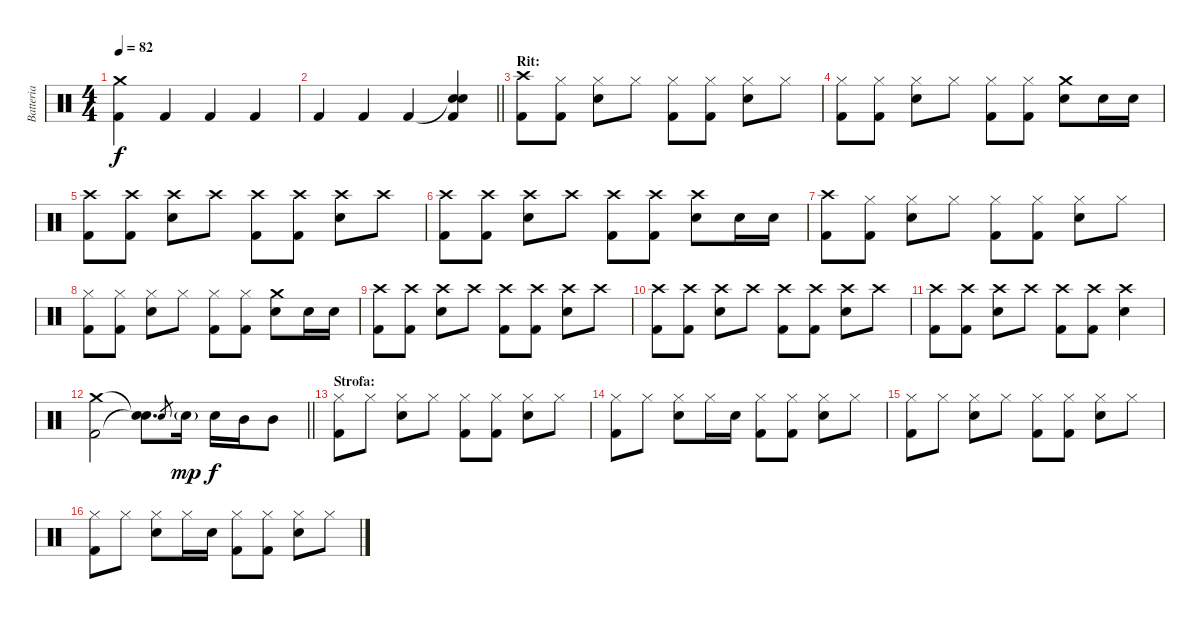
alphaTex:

\track ("Batteria" "Batteria") {instrument percussion}
\staff {score}
\articulation defaults
\ts (4 4)
\tempo 82
\clef neutral
\ks c
("Crash medium (hit)" "Kick (hit) 2").4{dy f} "Kick (hit) 2".4 "Kick (hit) 2".4 "Kick (hit) 2".4 |
\barLineRight lightlight "Kick (hit) 2".4 "Kick (hit) 2".4 "Kick (hit) 2".4
("Snare (hit)"{t} "Snare (hit) 2" "Kick (hit) 2").4 |
\section ("" "Rit:")
("Crash high (hit)" "Kick (hit) 2").8 ("Hi-Hat (closed)" "Kick (hit) 2").8 ("Hi-Hat (closed)" "Snare (hit) 2").8 "Hi-Hat (closed)".8 ("Hi-Hat (closed)" "Kick (hit) 2").8 ("Hi-Hat (closed)" "Kick (hit) 2").8 ("Hi-Hat (closed)" "Snare (hit) 2").8 "Hi-Hat (closed)".8 |
("Hi-Hat (closed)" "Kick (hit) 2").8 ("Hi-Hat (closed)" "Kick (hit) 2").8 ("Hi-Hat (closed)" "Snare (hit) 2").8 "Hi-Hat (closed)".8 ("Hi-Hat (closed)" "Kick (hit) 2").8 ("Hi-Hat (closed)" "Kick (hit) 2").8 ("Crash medium (hit)" "Snare (hit) 2").8 "Snare (hit) 2".16 "Snare (hit) 2".16 |
("Crash high (hit)" "Kick (hit) 2").8 ("Crash high (hit)" "Kick (hit) 2").8 ("Crash high (hit)" "Snare (hit) 2").8 "Crash high (hit)".8 ("Crash high (hit)" "Kick (hit) 2").8 ("Crash high (hit)" "Kick (hit) 2").8 ("Crash high (hit)" "Snare (hit) 2").8 "Crash high (hit)".8 |
("Crash high (hit)" "Kick (hit) 2").8 ("Crash high (hit)" "Kick (hit) 2").8 ("Crash high (hit)" "Snare (hit) 2").8 "Crash high (hit)".8 ("Crash high (hit)" "Kick (hit) 2").8 ("Crash high (hit)" "Kick (hit) 2").8 ("Crash high (hit)" "Snare (hit) 2").8 "Snare (hit) 2".16 "Snare (hit) 2".16 |
("Crash high (hit)" "Kick (hit) 2").8 ("Hi-Hat (closed)" "Kick (hit) 2").8 ("Hi-Hat (closed)" "Snare (hit) 2").8 "Hi-Hat (closed)".8 ("Hi-Hat (closed)" "Kick (hit) 2").8 ("Hi-Hat (closed)" "Kick (hit) 2").8 ("Hi-Hat (closed)" "Snare (hit) 2").8 "Hi-Hat (closed)".8 |
("Hi-Hat (closed)" "Kick (hit) 2").8 ("Hi-Hat (closed)" "Kick (hit) 2").8 ("Hi-Hat (closed)" "Snare (hit) 2").8 "Hi-Hat (closed)".8 ("Hi-Hat (closed)" "Kick (hit) 2").8 ("Hi-Hat (closed)" "Kick (hit) 2").8 ("Crash medium (hit)" "Snare (hit) 2").8 "Snare (hit) 2".16 "Snare (hit) 2".16 |
("Crash high (hit)" "Kick (hit) 2").8 ("Crash high (hit)" "Kick (hit) 2").8 ("Crash high (hit)" "Snare (hit) 2").8 "Crash high (hit)".8 ("Crash high (hit)" "Kick (hit) 2").8 ("Crash high (hit)" "Kick (hit) 2").8 ("Crash high (hit)" "Snare (hit) 2").8 "Crash high (hit)".8 |
("Crash high (hit)" "Kick (hit) 2").8 ("Crash high (hit)" "Kick (hit) 2").8 ("Crash high (hit)" "Snare (hit) 2").8 "Crash high (hit)".8 ("Crash high (hit)" "Kick (hit) 2").8 ("Crash high (hit)" "Kick (hit) 2").8 ("Crash high (hit)" "Snare (hit) 2").8 "Crash high (hit)".8 |
("Crash high (hit)" "Kick (hit) 2").8 ("Crash high (hit)" "Kick (hit) 2").8 ("Crash high (hit)" "Snare (hit) 2").8 "Crash high (hit)".8 ("Crash high (hit)" "Kick (hit) 2").8 ("Crash high (hit)" "Kick (hit) 2").8 ("Crash high (hit)" "Snare (hit) 2").4 |
\barLineRight lightlight
("Crash medium (hit)" "Kick (hit) 2").2 ("Snare (hit)"{t} "Snare (hit)"{t}).8{d} "Snare (hit) 2".8{gr} "Snare (hit) 2"{g}.16{dy mp} "Snare (hit) 2".16{dy f} "Mid Tom (hit)".16 "Mid Tom (hit)".8 |
\section ("" "Strofa:")
("Hi-Hat (closed)" "Kick (hit) 2").8 "Hi-Hat (closed)".8 ("Hi-Hat (closed)" "Snare (hit) 2").8 "Hi-Hat (closed)".8 ("Hi-Hat (closed)" "Kick (hit) 2").8 ("Hi-Hat (closed)" "Kick (hit) 2").8 ("Hi-Hat (closed)" "Snare (hit) 2").8 "Hi-Hat (closed)".8 |
("Hi-Hat (closed)" "Kick (hit) 2").8 "Hi-Hat (closed)".8 ("Hi-Hat (closed)" "Snare (hit) 2").8 "Hi-Hat (closed)".16 "Snare (hit) 2".16 ("Hi-Hat (closed)" "Kick (hit) 2").8 ("Hi-Hat (closed)" "Kick (hit) 2").8 ("Hi-Hat (closed)" "Snare (hit) 2").8 "Hi-Hat (closed)".8 |
("Hi-Hat (closed)" "Kick (hit) 2").8 "Hi-Hat (closed)".8 ("Hi-Hat (closed)" "Snare (hit) 2").8 "Hi-Hat (closed)".8 ("Hi-Hat (closed)" "Kick (hit) 2").8 ("Hi-Hat (closed)" "Kick (hit) 2").8 ("Hi-Hat (closed)" "Snare (hit) 2").8 "Hi-Hat (closed)".8 |
("Hi-Hat (closed)" "Kick (hit) 2").8 "Hi-Hat (closed)".8 ("Hi-Hat (closed)" "Snare (hit) 2").8 "Hi-Hat (closed)".16 "Snare (hit) 2".16 ("Hi-Hat (closed)" "Kick (hit) 2").8 ("Hi-Hat (closed)" "Kick (hit) 2").8 ("Hi-Hat (closed)" "Snare (hit) 2").8 "Hi-Hat (closed)".8
